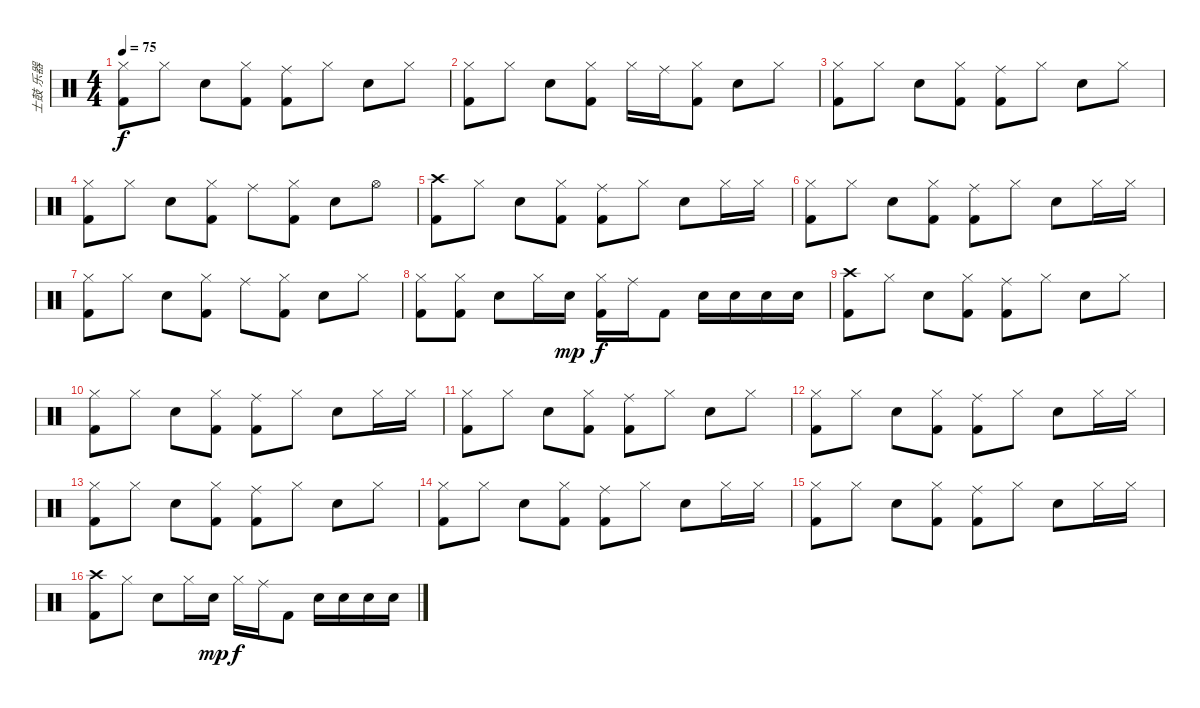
\track ("士鼓 乐器" "士鼓 乐器") {instrument percussion}
\staff {score}
\articulation defaults
\ts (4 4)
\tempo 75
\clef neutral
\ks c
("Hi-Hat (closed)" "Kick (hit) 2").8{dy f volume 11} "Hi-Hat (closed)".8 "Snare (hit) 2".8 ("Hi-Hat (closed)" "Kick (hit) 2").8 ("Ride (middle)" "Kick (hit) 2").8 "Hi-Hat (closed)".8 "Snare (hit) 2".8 "Hi-Hat (closed)".8 |
("Hi-Hat (closed)" "Kick (hit) 2").8 "Hi-Hat (closed)".8 "Snare (hit) 2".8 ("Hi-Hat (closed)" "Kick (hit) 2").8 "Hi-Hat (closed)".16 "Ride (middle)".16 ("Hi-Hat (closed)" "Kick (hit) 2").8 "Snare (hit) 2".8 "Hi-Hat (closed)".8 |
("Hi-Hat (closed)" "Kick (hit) 2").8 "Hi-Hat (closed)".8 "Snare (hit) 2".8 ("Hi-Hat (closed)" "Kick (hit) 2").8 ("Ride (middle)" "Kick (hit) 2").8 "Hi-Hat (closed)".8 "Snare (hit) 2".8 "Hi-Hat (closed)".8 |
("Hi-Hat (closed)" "Kick (hit) 2").8 "Hi-Hat (closed)".8 "Snare (hit) 2".8 ("Hi-Hat (closed)" "Kick (hit) 2").8 "Ride (middle)".8 ("Hi-Hat (closed)" "Kick (hit) 2").8 "Snare (hit) 2".8 "Hi-Hat (open)".8 |
("Crash high (hit)" "Kick (hit) 2").8 "Hi-Hat (closed)".8 "Snare (hit) 2".8 ("Hi-Hat (closed)" "Kick (hit) 2").8 ("Ride (middle)" "Kick (hit) 2").8 "Hi-Hat (closed)".8 "Snare (hit) 2".8 "Hi-Hat (closed)".16 "Hi-Hat (closed)".16 |
("Hi-Hat (closed)" "Kick (hit) 2").8 "Hi-Hat (closed)".8 "Snare (hit) 2".8 ("Hi-Hat (closed)" "Kick (hit) 2").8 ("Ride (middle)" "Kick (hit) 2").8 "Hi-Hat (closed)".8 "Snare (hit) 2".8 "Hi-Hat (closed)".16 "Hi-Hat (closed)".16 |
("Hi-Hat (closed)" "Kick (hit) 2").8 "Hi-Hat (closed)".8 "Snare (hit) 2".8 ("Hi-Hat (closed)" "Kick (hit) 2").8 "Ride (middle)".8 ("Hi-Hat (closed)" "Kick (hit) 2").8 "Snare (hit) 2".8 "Hi-Hat (closed)".8 |
("Hi-Hat (closed)" "Kick (hit) 2").8 ("Hi-Hat (closed)" "Kick (hit) 2").8 "Snare (hit) 2".8 "Hi-Hat (closed)".16 "Snare (hit) 2".16{dy mp} ("Hi-Hat (closed)" "Kick (hit) 2").16{dy f} "Ride (middle)".16 "Kick (hit) 2".8 "Snare (hit) 2".16 "Snare (hit) 2".16 "Snare (hit) 2".16 "Snare (hit) 2".16 |
("Crash high (hit)" "Kick (hit) 2").8 "Hi-Hat (closed)".8 "Snare (hit) 2".8 ("Hi-Hat (closed)" "Kick (hit) 2").8 ("Ride (middle)" "Kick (hit) 2").8 "Hi-Hat (closed)".8 "Snare (hit) 2".8 "Hi-Hat (closed)".8 |
("Hi-Hat (closed)" "Kick (hit) 2").8 "Hi-Hat (closed)".8 "Snare (hit) 2".8 ("Hi-Hat (closed)" "Kick (hit) 2").8 ("Ride (middle)" "Kick (hit) 2").8 "Hi-Hat (closed)".8 "Snare (hit) 2".8 "Hi-Hat (closed)".16 "Hi-Hat (closed)".16 |
("Hi-Hat (closed)" "Kick (hit) 2").8 "Hi-Hat (closed)".8 "Snare (hit) 2".8 ("Hi-Hat (closed)" "Kick (hit) 2").8 ("Ride (middle)" "Kick (hit) 2").8 "Hi-Hat (closed)".8 "Snare (hit) 2".8 "Hi-Hat (closed)".8 |
("Hi-Hat (closed)" "Kick (hit) 2").8 "Hi-Hat (closed)".8 "Snare (hit) 2".8 ("Hi-Hat (closed)" "Kick (hit) 2").8 ("Ride (middle)" "Kick (hit) 2").8 "Hi-Hat (closed)".8 "Snare (hit) 2".8 "Hi-Hat (closed)".16 "Hi-Hat (closed)".16 |
("Hi-Hat (closed)" "Kick (hit) 2").8 "Hi-Hat (closed)".8 "Snare (hit) 2".8 ("Hi-Hat (closed)" "Kick (hit) 2").8 ("Ride (middle)" "Kick (hit) 2").8 "Hi-Hat (closed)".8 "Snare (hit) 2".8 "Hi-Hat (closed)".8 |
("Hi-Hat (closed)" "Kick (hit) 2").8 "Hi-Hat (closed)".8 "Snare (hit) 2".8 ("Hi-Hat (closed)" "Kick (hit) 2").8 ("Ride (middle)" "Kick (hit) 2").8 "Hi-Hat (closed)".8 "Snare (hit) 2".8 "Hi-Hat (closed)".16 "Hi-Hat (closed)".16 |
("Hi-Hat (closed)" "Kick (hit) 2").8 "Hi-Hat (closed)".8 "Snare (hit) 2".8 ("Hi-Hat (closed)" "Kick (hit) 2").8 ("Ride (middle)" "Kick (hit) 2").8 "Hi-Hat (closed)".8 "Snare (hit) 2".8 "Hi-Hat (closed)".16 "Hi-Hat (closed)".16 |
("Crash high (hit)" "Kick (hit) 2").8 "Hi-Hat (closed)".8 "Snare (hit) 2".8 "Hi-Hat (closed)".16 "Snare (hit) 2".16{dy mp} "Hi-Hat (closed)".16{dy f} "Ride (middle)".16 "Kick (hit) 2".8 "Snare (hit) 2".16 "Snare (hit) 2".16 "Snare (hit) 2".16 "Snare (hit) 2".16
